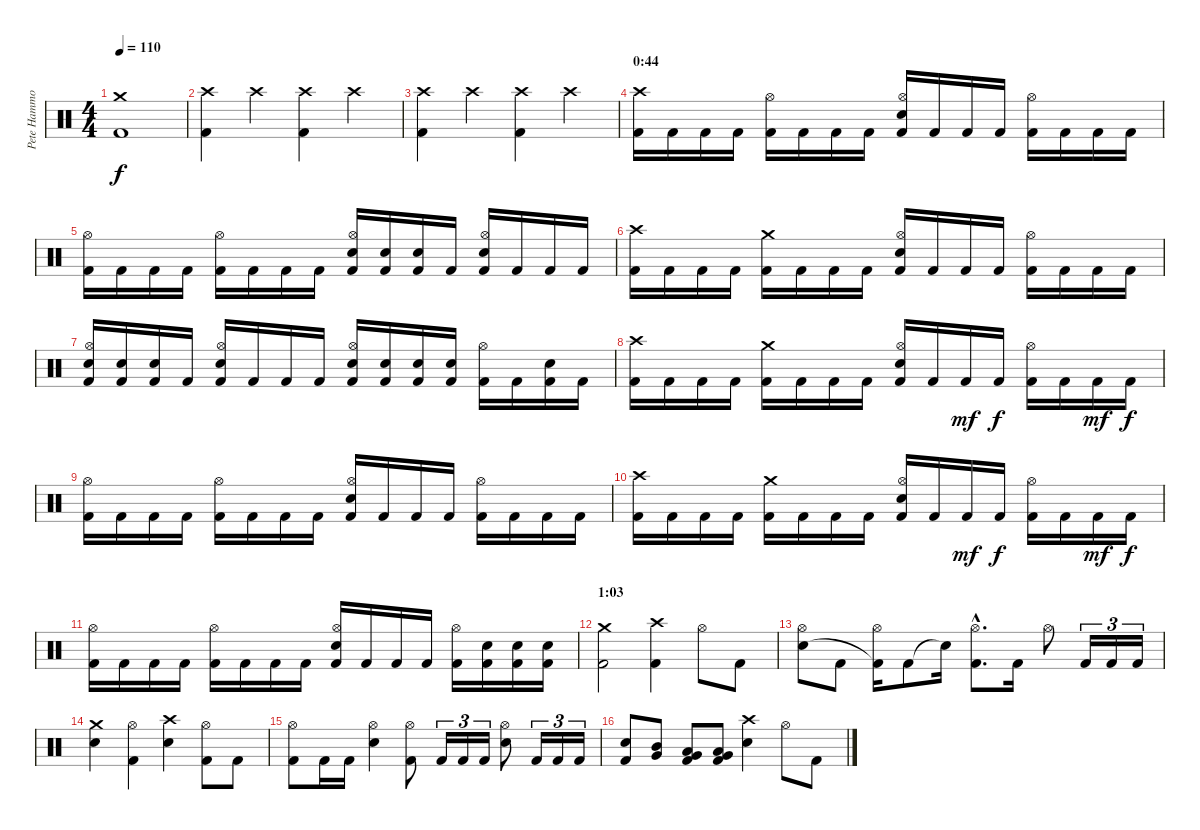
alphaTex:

\track ("Pete Hammoura" "Pete Hammo") {instrument percussion}
\staff {score}
\articulation defaults
\ts (4 4)
\tempo 110
\clef neutral
\ks c
("Crash medium (hit)" "Kick (hit) 2").1{dy f} |
("Crash high (hit)" "Kick (hit) 2").4 "Crash high (hit)".4 ("Crash high (hit)" "Kick (hit) 2").4 "Crash high (hit)".4 |
("Crash high (hit)" "Kick (hit) 2").4 "Crash high (hit)".4 ("Crash high (hit)" "Kick (hit) 2").4 "Crash high (hit)".4 |
\section ("" "0:44")
("Crash high (hit)" "Kick (hit) 2").16 "Kick (hit) 2".16 "Kick (hit) 2".16 "Kick (hit) 2".16 ("Hi-Hat (open)" "Kick (hit) 2").16 "Kick (hit) 2".16 "Kick (hit) 2".16 "Kick (hit) 2".16 ("Hi-Hat (open)" "Electric Snare (hit)" "Kick (hit) 2").16 "Kick (hit) 2".16 "Kick (hit) 2".16 "Kick (hit) 2".16 ("Hi-Hat (open)" "Kick (hit) 2").16 "Kick (hit) 2".16 "Kick (hit) 2".16 "Kick (hit) 2".16 |
("Hi-Hat (open)" "Kick (hit) 2").16 "Kick (hit) 2".16 "Kick (hit) 2".16 "Kick (hit) 2".16 ("Hi-Hat (open)" "Kick (hit) 2").16 "Kick (hit) 2".16 "Kick (hit) 2".16 "Kick (hit) 2".16 ("Hi-Hat (open)" "Electric Snare (hit)" "Kick (hit) 2").16 ("Electric Snare (hit)" "Kick (hit) 2").16 ("Electric Snare (hit)" "Kick (hit) 2").16 "Kick (hit) 2".16 ("Hi-Hat (open)" "Electric Snare (hit)" "Kick (hit) 2").16 "Kick (hit) 2".16 "Kick (hit) 2".16 "Kick (hit) 2".16 |
("Crash high (hit)" "Kick (hit) 2").16 "Kick (hit) 2".16 "Kick (hit) 2".16 "Kick (hit) 2".16 ("Crash medium (hit)" "Kick (hit) 2").16 "Kick (hit) 2".16 "Kick (hit) 2".16 "Kick (hit) 2".16 ("Hi-Hat (open)" "Electric Snare (hit)" "Kick (hit) 2").16 "Kick (hit) 2".16 "Kick (hit) 2".16 "Kick (hit) 2".16 ("Hi-Hat (open)" "Kick (hit) 2").16 "Kick (hit) 2".16 "Kick (hit) 2".16 "Kick (hit) 2".16 |
("Hi-Hat (open)" "Electric Snare (hit)" "Kick (hit) 2").16 ("Electric Snare (hit)" "Kick (hit) 2").16 ("Electric Snare (hit)" "Kick (hit) 2").16 "Kick (hit) 2".16 ("Hi-Hat (open)" "Electric Snare (hit)" "Kick (hit) 2").16 "Kick (hit) 2".16 "Kick (hit) 2".16 "Kick (hit) 2".16 ("Hi-Hat (open)" "Electric Snare (hit)" "Kick (hit) 2").16 ("Electric Snare (hit)" "Kick (hit) 2").16 ("Electric Snare (hit)" "Kick (hit) 2").16 ("Electric Snare (hit)" "Kick (hit) 2").16 ("Hi-Hat (open)" "Kick (hit) 2").16 "Kick (hit) 2".16 ("Electric Snare (hit)" "Kick (hit) 2").16 "Kick (hit) 2".16 |
("Crash high (hit)" "Kick (hit) 2").16 "Kick (hit) 2".16 "Kick (hit) 2".16 "Kick (hit) 2".16 ("Crash medium (hit)" "Kick (hit) 2").16 "Kick (hit) 2".16 "Kick (hit) 2".16 "Kick (hit) 2".16 ("Hi-Hat (open)" "Electric Snare (hit)" "Kick (hit) 2").16 "Kick (hit) 2".16 "Kick (hit) 2".16{dy mf} "Kick (hit) 2".16{dy f} ("Hi-Hat (open)" "Kick (hit) 2").16 "Kick (hit) 2".16 "Kick (hit) 2".16{dy mf} "Kick (hit) 2".16{dy f} |
("Hi-Hat (open)" "Kick (hit) 2").16 "Kick (hit) 2".16 "Kick (hit) 2".16 "Kick (hit) 2".16 ("Hi-Hat (open)" "Kick (hit) 2").16 "Kick (hit) 2".16 "Kick (hit) 2".16 "Kick (hit) 2".16 ("Hi-Hat (open)" "Electric Snare (hit)" "Kick (hit) 2").16 "Kick (hit) 2".16 "Kick (hit) 2".16 "Kick (hit) 2".16 ("Hi-Hat (open)" "Kick (hit) 2").16 "Kick (hit) 2".16 "Kick (hit) 2".16 "Kick (hit) 2".16 |
("Crash high (hit)" "Kick (hit) 2").16 "Kick (hit) 2".16 "Kick (hit) 2".16 "Kick (hit) 2".16 ("Crash medium (hit)" "Kick (hit) 2").16 "Kick (hit) 2".16 "Kick (hit) 2".16 "Kick (hit) 2".16 ("Hi-Hat (open)" "Electric Snare (hit)" "Kick (hit) 2").16 "Kick (hit) 2".16 "Kick (hit) 2".16{dy mf} "Kick (hit) 2".16{dy f} ("Hi-Hat (open)" "Kick (hit) 2").16 "Kick (hit) 2".16 "Kick (hit) 2".16{dy mf} "Kick (hit) 2".16{dy f} |
("Hi-Hat (open)" "Kick (hit) 2").16 "Kick (hit) 2".16 "Kick (hit) 2".16 "Kick (hit) 2".16 ("Hi-Hat (open)" "Kick (hit) 2").16 "Kick (hit) 2".16 "Kick (hit) 2".16 "Kick (hit) 2".16 ("Hi-Hat (open)" "Electric Snare (hit)" "Kick (hit) 2").16 "Kick (hit) 2".16 "Kick (hit) 2".16 "Kick (hit) 2".16 ("Hi-Hat (open)" "Kick (hit) 2").16 ("Electric Snare (hit)" "Kick (hit) 2").16 ("Electric Snare (hit)" "Kick (hit) 2").16 ("Electric Snare (hit)" "Kick (hit) 2").16 |
\section ("" "1:03")
("Crash medium (hit)" "Kick (hit) 2").2 ("Crash high (hit)" "Kick (hit) 2").4 "Hi-Hat (open)".8 "Kick (hit) 2".8 |
("Hi-Hat (open)" "Electric Snare (hit)").8 "Kick (hit) 2".8 ("Hi-Hat (open)" "Kick (hit) 2"{t}).16 "Kick (hit) 2".8 "Snare (hit)"{t}.16 ("Hi-Hat (open)"{hac} "Kick (hit) 2"{hac}).8{d} "Kick (hit) 2".16 "Hi-Hat (open)".8 "Kick (hit) 2".16{tu (3 2)} "Kick (hit) 2".16{tu (3 2)} "Kick (hit) 2".16{tu (3 2)} |
("Crash medium (hit)" "Electric Snare (hit)").4 ("Hi-Hat (open)" "Kick (hit) 2").4 ("Crash high (hit)" "Electric Snare (hit)").4 ("Hi-Hat (open)" "Kick (hit) 2").8 "Kick (hit) 2".8 |
("Hi-Hat (open)" "Kick (hit) 2").8 "Kick (hit) 2".16 "Kick (hit) 2".16 ("Hi-Hat (open)" "Electric Snare (hit)").4 ("Hi-Hat (open)" "Kick (hit) 2").8 "Kick (hit) 2".16{tu (3 2)} "Kick (hit) 2".16{tu (3 2)} "Kick (hit) 2".16{tu (3 2)} ("Hi-Hat (open)" "Electric Snare (hit)").8 "Kick (hit) 2".16{tu (3 2)} "Kick (hit) 2".16{tu (3 2)} "Kick (hit) 2".16{tu (3 2)} |
("Electric Snare (hit)" "Kick (hit) 2").8 ("Mid Tom (hit)" "Very Low Tom (hit)").8 ("Low Tom (hit)" "Very Low Tom (hit)" "Kick (hit) 2").8 ("Very Low Tom (hit)" "Low Floor Tom (hit)" "Kick (hit) 2").8 ("Crash high (hit)" "Electric Snare (hit)").4 "Hi-Hat (open)".8 "Kick (hit) 2".8
